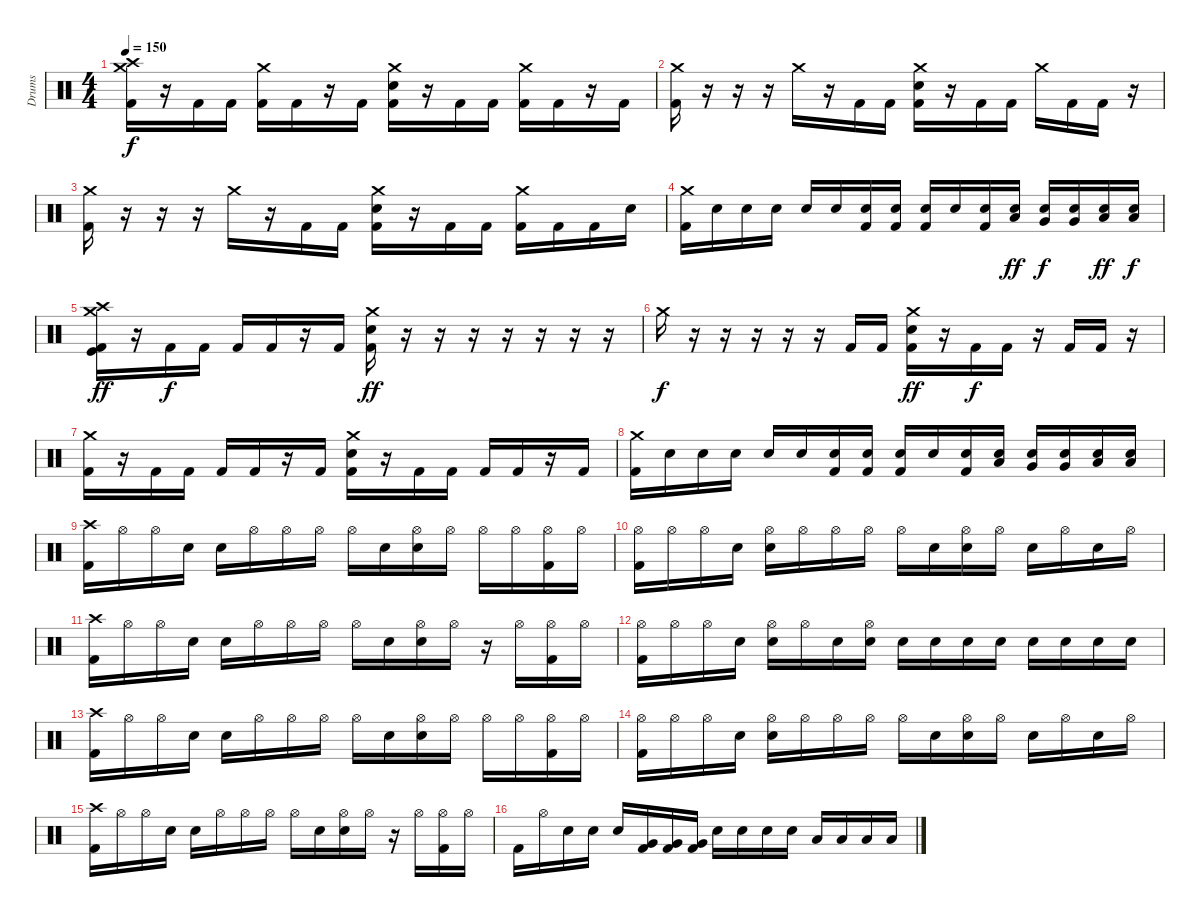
\track ("Drums" "Drums") {instrument percussion}
\staff {score}
\articulation defaults
\ts (4 4)
\tempo 150
\clef neutral
\ks c
("Crash high (hit)" "Crash medium (hit)" "Kick (hit) 2").16{dy f} r.16 "Kick (hit) 2".16 "Kick (hit) 2".16 ("Crash medium (hit)" "Kick (hit) 2").16 "Kick (hit) 2".16 r.16 "Kick (hit) 2".16 ("Crash medium (hit)" "Electric Snare (hit)" "Kick (hit) 2").16 r.16 "Kick (hit) 2".16 "Kick (hit) 2".16 ("Crash medium (hit)" "Kick (hit) 2").16 "Kick (hit) 2".16 r.16 "Kick (hit) 2".16 |
("Crash medium (hit)" "Kick (hit) 2").16 r.16 r.16 r.16 "Crash medium (hit)".16 r.16 "Kick (hit) 2".16 "Kick (hit) 2".16 ("Crash medium (hit)" "Electric Snare (hit)" "Kick (hit) 2").16 r.16 "Kick (hit) 2".16 "Kick (hit) 2".16 "Crash medium (hit)".16 "Kick (hit) 2".16 "Kick (hit) 2".16 r.16 |
("Crash medium (hit)" "Kick (hit) 2").16 r.16 r.16 r.16 "Crash medium (hit)".16 r.16 "Kick (hit) 2".16 "Kick (hit) 2".16 ("Crash medium (hit)" "Electric Snare (hit)" "Kick (hit) 2").16 r.16 "Kick (hit) 2".16 "Kick (hit) 2".16 ("Crash medium (hit)" "Kick (hit) 2").16 "Kick (hit) 2".16 "Kick (hit) 2".16 "Electric Snare (hit)".16 |
("Crash medium (hit)" "Kick (hit) 2").16 "Electric Snare (hit)".16 "Electric Snare (hit)".16 "Electric Snare (hit)".16 "Electric Snare (hit)".16 "Electric Snare (hit)".16 ("Electric Snare (hit)" "Kick (hit) 2").16 ("Electric Snare (hit)" "Kick (hit) 2").16 ("Electric Snare (hit)" "Kick (hit) 2").16 "Electric Snare (hit)".16 ("Electric Snare (hit)" "Kick (hit) 2").16 ("Electric Snare (hit)" "Low Tom (hit)").16{dy ff} ("Electric Snare (hit)" "Very Low Tom (hit)").16{dy f} ("Electric Snare (hit)" "Very Low Tom (hit)").16 ("Electric Snare (hit)" "Low Tom (hit)").16{dy ff} ("Electric Snare (hit)" "Low Floor Tom (hit)").16{dy f} |
("Crash medium (hit)" "Crash high (hit)" "Kick (hit)" "Kick (hit) 2").16{dy ff} r.16 "Kick (hit) 2".16{dy f} "Kick (hit) 2".16 "Kick (hit) 2".16 "Kick (hit) 2".16 r.16 "Kick (hit) 2".16 ("Crash medium (hit)" "Electric Snare (hit)" "Kick (hit) 2").16{dy ff} r.16 r.16 r.16 r.16 r.16 r.16 r.16 |
"Crash medium (hit)".16{dy f} r.16 r.16 r.16 r.16 r.16 "Kick (hit) 2".16 "Kick (hit) 2".16 ("Crash medium (hit)" "Electric Snare (hit)" "Kick (hit) 2").16{dy ff} r.16 "Kick (hit) 2".16{dy f} "Kick (hit) 2".16 r.16 "Kick (hit) 2".16 "Kick (hit) 2".16 r.16 |
("Crash medium (hit)" "Kick (hit) 2").16 r.16 "Kick (hit) 2".16 "Kick (hit) 2".16 "Kick (hit) 2".16 "Kick (hit) 2".16 r.16 "Kick (hit) 2".16 ("Crash medium (hit)" "Electric Snare (hit)" "Kick (hit) 2").16 r.16 "Kick (hit) 2".16 "Kick (hit) 2".16 "Kick (hit) 2".16 "Kick (hit) 2".16 r.16 "Kick (hit) 2".16 |
("Crash medium (hit)" "Kick (hit) 2").16 "Electric Snare (hit)".16 "Electric Snare (hit)".16 "Electric Snare (hit)".16 "Electric Snare (hit)".16 "Electric Snare (hit)".16 ("Electric Snare (hit)" "Kick (hit) 2").16 ("Electric Snare (hit)" "Kick (hit) 2").16 ("Electric Snare (hit)" "Kick (hit) 2").16 "Electric Snare (hit)".16 ("Electric Snare (hit)" "Kick (hit) 2").16 ("Electric Snare (hit)" "Low Tom (hit)").16 ("Electric Snare (hit)" "Very Low Tom (hit)").16 ("Electric Snare (hit)" "Very Low Tom (hit)").16 ("Electric Snare (hit)" "Low Tom (hit)").16 ("Electric Snare (hit)" "Low Floor Tom (hit)").16 |
("Crash high (hit)" "Kick (hit) 2").16 "Hi-Hat (open)".16 "Hi-Hat (open)".16 "Electric Snare (hit)".16 "Electric Snare (hit)".16 "Hi-Hat (open)".16 "Hi-Hat (open)".16 "Hi-Hat (open)".16 "Hi-Hat (open)".16 "Electric Snare (hit)".16 ("Hi-Hat (open)" "Electric Snare (hit)").16 "Hi-Hat (open)".16 "Hi-Hat (open)".16 "Hi-Hat (open)".16 ("Hi-Hat (open)" "Kick (hit) 2").16 "Hi-Hat (open)".16 |
("Hi-Hat (open)" "Kick (hit) 2").16 "Hi-Hat (open)".16 "Hi-Hat (open)".16 "Electric Snare (hit)".16 ("Hi-Hat (open)" "Electric Snare (hit)").16 "Hi-Hat (open)".16 "Hi-Hat (open)".16 "Hi-Hat (open)".16 "Hi-Hat (open)".16 "Electric Snare (hit)".16 ("Hi-Hat (open)" "Electric Snare (hit)").16 "Hi-Hat (open)".16 "Electric Snare (hit)".16 "Hi-Hat (open)".16 "Electric Snare (hit)".16 "Hi-Hat (open)".16 |
("Crash high (hit)" "Kick (hit) 2").16 "Hi-Hat (open)".16 "Hi-Hat (open)".16 "Electric Snare (hit)".16 "Electric Snare (hit)".16 "Hi-Hat (open)".16 "Hi-Hat (open)".16 "Hi-Hat (open)".16 "Hi-Hat (open)".16 "Electric Snare (hit)".16 ("Hi-Hat (open)" "Electric Snare (hit)").16 "Hi-Hat (open)".16 r.16 "Hi-Hat (open)".16 ("Hi-Hat (open)" "Kick (hit) 2").16 "Hi-Hat (open)".16 |
("Hi-Hat (open)" "Kick (hit) 2").16 "Hi-Hat (open)".16 "Hi-Hat (open)".16 "Electric Snare (hit)".16 ("Hi-Hat (open)" "Electric Snare (hit)").16 "Hi-Hat (open)".16 "Electric Snare (hit)".16 ("Hi-Hat (open)" "Electric Snare (hit)").16 "Electric Snare (hit)".16 "Electric Snare (hit)".16 "Electric Snare (hit)".16 "Electric Snare (hit)".16 "Electric Snare (hit)".16 "Electric Snare (hit)".16 "Electric Snare (hit)".16 "Electric Snare (hit)".16 |
("Crash high (hit)" "Kick (hit) 2").16 "Hi-Hat (open)".16 "Hi-Hat (open)".16 "Electric Snare (hit)".16 "Electric Snare (hit)".16 "Hi-Hat (open)".16 "Hi-Hat (open)".16 "Hi-Hat (open)".16 "Hi-Hat (open)".16 "Electric Snare (hit)".16 ("Hi-Hat (open)" "Electric Snare (hit)").16 "Hi-Hat (open)".16 "Hi-Hat (open)".16 "Hi-Hat (open)".16 ("Hi-Hat (open)" "Kick (hit) 2").16 "Hi-Hat (open)".16 |
("Hi-Hat (open)" "Kick (hit) 2").16 "Hi-Hat (open)".16 "Hi-Hat (open)".16 "Electric Snare (hit)".16 ("Hi-Hat (open)" "Electric Snare (hit)").16 "Hi-Hat (open)".16 "Hi-Hat (open)".16 "Hi-Hat (open)".16 "Hi-Hat (open)".16 "Electric Snare (hit)".16 ("Hi-Hat (open)" "Electric Snare (hit)").16 "Hi-Hat (open)".16 "Electric Snare (hit)".16 "Hi-Hat (open)".16 "Electric Snare (hit)".16 "Hi-Hat (open)".16 |
("Crash high (hit)" "Kick (hit) 2").16 "Hi-Hat (open)".16 "Hi-Hat (open)".16 "Electric Snare (hit)".16 "Electric Snare (hit)".16 "Hi-Hat (open)".16 "Hi-Hat (open)".16 "Hi-Hat (open)".16 "Hi-Hat (open)".16 "Electric Snare (hit)".16 ("Hi-Hat (open)" "Electric Snare (hit)").16 "Hi-Hat (open)".16 r.16 "Hi-Hat (open)".16 ("Hi-Hat (open)" "Kick (hit) 2").16 "Hi-Hat (open)".16 |
"Kick (hit) 2".16 "Hi-Hat (open)".16 "Electric Snare (hit)".16 "Electric Snare (hit)".16 "Electric Snare (hit)".16 ("Very Low Tom (hit)" "Kick (hit) 2").16 ("Very Low Tom (hit)" "Kick (hit) 2").16 ("Very Low Tom (hit)" "Kick (hit) 2").16 "Electric Snare (hit)".16 "Electric Snare (hit)".16 "Electric Snare (hit)".16 "Electric Snare (hit)".16 "Low Floor Tom (hit)".16 "Low Floor Tom (hit)".16 "Low Floor Tom (hit)".16 "Low Floor Tom (hit)".16
